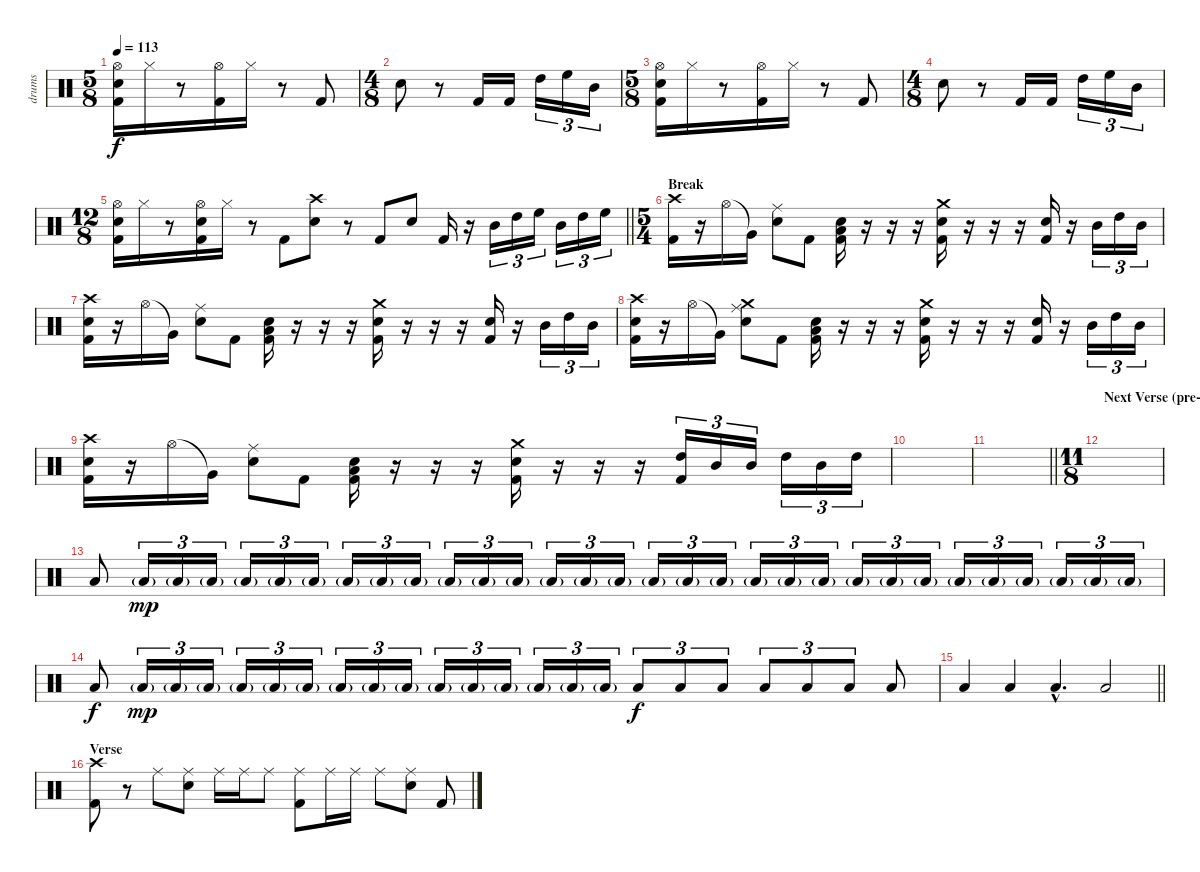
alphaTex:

\track ("drums" "drums") {instrument percussion}
\staff {score}
\articulation defaults
\ts (5 8)
\tempo 113
\clef neutral
\ks c
("Electric Snare (hit)" "Kick (hit) 2" "Hi-Hat (open)").16{dy f} "Hi-Hat (closed)".16 r.8 ("Kick (hit) 2" "Hi-Hat (open)").16 "Hi-Hat (closed)".16 r.8 "Kick (hit) 2".8 |
\ts (4 8)
"Electric Snare (hit)".8 r.8 "Kick (hit) 2".16 "Kick (hit) 2".16 "High Tom (hit)".16{tu (3 2)} "High Floor Tom (hit)".16{tu (3 2)} "Mid Tom (hit)".16{tu (3 2)} |
\ts (5 8)
("Electric Snare (hit)" "Kick (hit) 2" "Hi-Hat (open)").16 "Hi-Hat (closed)".16 r.8 ("Kick (hit) 2" "Hi-Hat (open)").16 "Hi-Hat (closed)".16 r.8 "Kick (hit) 2".8 |
\ts (4 8)
"Electric Snare (hit)".8 r.8 "Kick (hit) 2".16 "Kick (hit) 2".16 "High Tom (hit)".16{tu (3 2)} "High Floor Tom (hit)".16{tu (3 2)} "Mid Tom (hit)".16{tu (3 2)} |
\ts (12 8)
\barLineRight lightlight
("Electric Snare (hit)" "Kick (hit) 2" "Hi-Hat (open)").16 "Hi-Hat (closed)".16 r.8 ("Kick (hit) 2" "Hi-Hat (open)" "Electric Snare (hit)").16 "Hi-Hat (closed)".16 r.8 "Kick (hit) 2".8 ("Electric Snare (hit)" "Crash high (hit)").8 r.8 "Kick (hit) 2".8 "Electric Snare (hit)".8 "Kick (hit) 2".16 r.16 "Mid Tom (hit)".16{tu (3 2)} "High Tom (hit)".16{tu (3 2)} "High Floor Tom (hit)".16{tu (3 2)} "Mid Tom (hit)".16{tu (3 2)} "High Tom (hit)".16{tu (3 2)} "High Floor Tom (hit)".16{tu (3 2)} |
\ts (5 4)
\section ("" "Break")
("Crash high (hit)" "Kick (hit) 2").16 r.16 "Hi-Hat (open)".16 "Very Low Tom (hit)"{t}.16 ("Ride (middle)" "Electric Snare (hit)").8 "Kick (hit) 2".8 ("Electric Snare (hit)" "Kick (hit) 2" "Low Floor Tom (hit)").16 r.16 r.16 r.16 ("Crash medium (hit)" "Electric Snare (hit)" "Kick (hit) 2").16 r.16 r.16 r.16 ("Electric Snare (hit)" "Kick (hit) 2").16 r.16 "Mid Tom (hit)".16{tu (3 2)} "High Tom (hit)".16{tu (3 2)} "Mid Tom (hit)".16{tu (3 2)} |
("Crash high (hit)" "Electric Snare (hit)" "Kick (hit) 2").16 r.16 "Hi-Hat (open)".16 "Very Low Tom (hit)"{t}.16 ("Ride (middle)" "Electric Snare (hit)").8 "Kick (hit) 2".8 ("Electric Snare (hit)" "Kick (hit) 2" "Low Floor Tom (hit)").16 r.16 r.16 r.16 ("Crash medium (hit)" "Electric Snare (hit)" "Kick (hit) 2").16 r.16 r.16 r.16 ("Electric Snare (hit)" "Kick (hit) 2").16 r.16 "Mid Tom (hit)".16{tu (3 2)} "High Tom (hit)".16{tu (3 2)} "Mid Tom (hit)".16{tu (3 2)} |
("Crash high (hit)" "Electric Snare (hit)" "Kick (hit) 2").16 r.16 "Hi-Hat (open)".16 "Very Low Tom (hit)"{t}.16 ("Crash medium (hit)" "Ride (middle)" "Electric Snare (hit)").8 "Kick (hit) 2".8 ("Electric Snare (hit)" "Kick (hit) 2" "Low Floor Tom (hit)").16 r.16 r.16 r.16 ("Crash medium (hit)" "Electric Snare (hit)" "Kick (hit) 2").16 r.16 r.16 r.16 ("Electric Snare (hit)" "Kick (hit) 2").16 r.16 "Mid Tom (hit)".16{tu (3 2)} "High Tom (hit)".16{tu (3 2)} "Mid Tom (hit)".16{tu (3 2)} |
("Crash high (hit)" "Electric Snare (hit)" "Kick (hit) 2").16 r.16 "Hi-Hat (open)".16 "Very Low Tom (hit)"{t}.16 ("Ride (middle)" "Electric Snare (hit)").8 "Kick (hit) 2".8 ("Electric Snare (hit)" "Kick (hit) 2" "Low Floor Tom (hit)").16 r.16 r.16 r.16 ("Crash medium (hit)" "Electric Snare (hit)" "Kick (hit) 2").16 r.16 r.16 r.16 ("Kick (hit) 2" "High Tom (hit)").16{tu (3 2)} "Mid Tom (hit)".16{tu (3 2)} "Mid Tom (hit)".16{tu (3 2)} "High Tom (hit)".16{tu (3 2)} "Mid Tom (hit)".16{tu (3 2)} "High Tom (hit)".16{tu (3 2)} |
|
\barLineRight lightlight
|
\ts (11 8)
\section ("" "Next Verse (pre-verse)")
|
"Low Floor Tom (hit)".8 "Low Floor Tom (hit)"{g}.16{tu (3 2) dy mp} "Low Floor Tom (hit)"{g}.16{tu (3 2)} "Low Floor Tom (hit)"{g}.16{tu (3 2)} "Low Floor Tom (hit)"{g}.16{tu (3 2)} "Low Floor Tom (hit)"{g}.16{tu (3 2)} "Low Floor Tom (hit)"{g}.16{tu (3 2)} "Low Floor Tom (hit)"{g}.16{tu (3 2)} "Low Floor Tom (hit)"{g}.16{tu (3 2)} "Low Floor Tom (hit)"{g}.16{tu (3 2)} "Low Floor Tom (hit)"{g}.16{tu (3 2)} "Low Floor Tom (hit)"{g}.16{tu (3 2)} "Low Floor Tom (hit)"{g}.16{tu (3 2)} "Low Floor Tom (hit)"{g}.16{tu (3 2)} "Low Floor Tom (hit)"{g}.16{tu (3 2)} "Low Floor Tom (hit)"{g}.16{tu (3 2)} "Low Floor Tom (hit)"{g}.16{tu (3 2)} "Low Floor Tom (hit)"{g}.16{tu (3 2)} "Low Floor Tom (hit)"{g}.16{tu (3 2)} "Low Floor Tom (hit)"{g}.16{tu (3 2)} "Low Floor Tom (hit)"{g}.16{tu (3 2)} "Low Floor Tom (hit)"{g}.16{tu (3 2)} "Low Floor Tom (hit)"{g}.16{tu (3 2)} "Low Floor Tom (hit)"{g}.16{tu (3 2)} "Low Floor Tom (hit)"{g}.16{tu (3 2)} "Low Floor Tom (hit)"{g}.16{tu (3 2)} "Low Floor Tom (hit)"{g}.16{tu (3 2)} "Low Floor Tom (hit)"{g}.16{tu (3 2)} "Low Floor Tom (hit)"{g}.16{tu (3 2)} "Low Floor Tom (hit)"{g}.16{tu (3 2)} "Low Floor Tom (hit)"{g}.16{tu (3 2)} |
"Low Tom (hit)".8{dy f} "Low Tom (hit)"{g}.16{tu (3 2) dy mp} "Low Tom (hit)"{g}.16{tu (3 2)} "Low Tom (hit)"{g}.16{tu (3 2)} "Low Tom (hit)"{g}.16{tu (3 2)} "Low Tom (hit)"{g}.16{tu (3 2)} "Low Tom (hit)"{g}.16{tu (3 2)} "Low Tom (hit)"{g}.16{tu (3 2)} "Low Tom (hit)"{g}.16{tu (3 2)} "Low Tom (hit)"{g}.16{tu (3 2)} "Low Tom (hit)"{g}.16{tu (3 2)} "Low Tom (hit)"{g}.16{tu (3 2)} "Low Tom (hit)"{g}.16{tu (3 2)} "Low Tom (hit)"{g}.16{tu (3 2)} "Low Tom (hit)"{g}.16{tu (3 2)} "Low Tom (hit)"{g}.16{tu (3 2)} "Low Tom (hit)".8{tu (3 2) dy f} "Low Tom (hit)".8{tu (3 2)} "Low Tom (hit)".8{tu (3 2)} "Low Tom (hit)".8{tu (3 2)} "Low Tom (hit)".8{tu (3 2)} "Low Tom (hit)".8{tu (3 2)} "Low Tom (hit)".8 |
\barLineRight lightlight "Low Tom (hit)".4 "Low Tom (hit)".4 "Low Tom (hit)"{hac}.4{d} "Low Tom (hit)".2
|
\section ("" "Verse")
("Crash high (hit)" "Kick (hit) 2").8 r.8 "Ride (middle)".8 ("Ride (middle)" "Electric Snare (hit)").8 "Ride (middle)".16 "Ride (middle)".16 "Ride (middle)".8 ("Ride (middle)" "Kick (hit) 2").8 "Ride (middle)".16 "Ride (middle)".16 "Ride (middle)".8 ("Ride (middle)" "Electric Snare (hit)").8 "Kick (hit) 2".8
